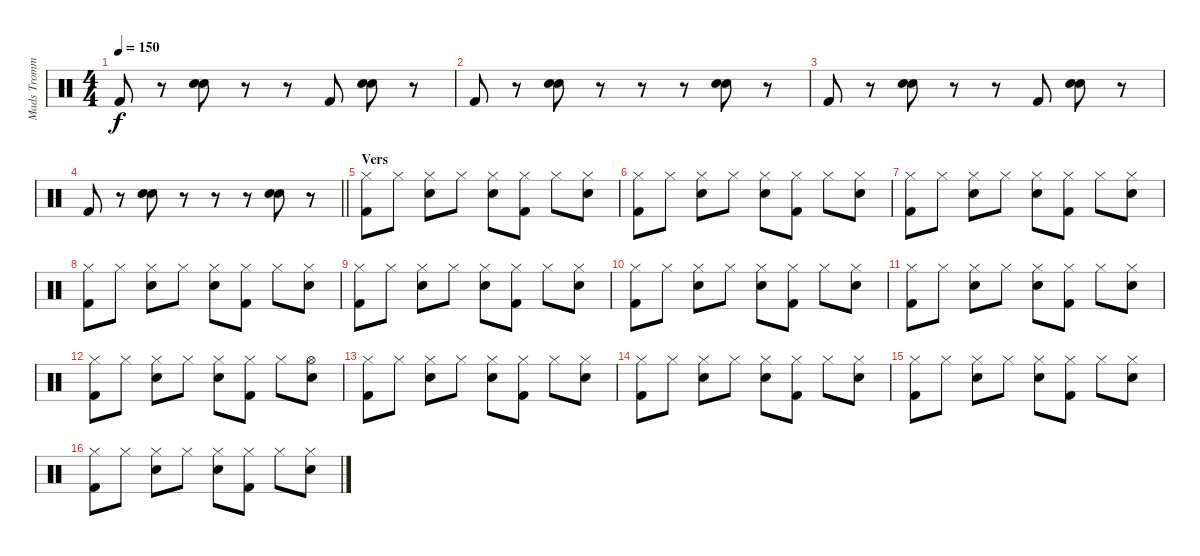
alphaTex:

\track ("Mads Trommer" "Mads Tromm") {instrument percussion}
\staff {score}
\articulation defaults
\ts (4 4)
\tempo 150
\clef neutral
\ks c "Kick (hit) 2".8{dy f}
r.8 ("Hand Clap (hit)" "Electric Snare (hit)").8 r.8 r.8 "Kick (hit) 2".8 ("Hand Clap (hit)" "Electric Snare (hit)").8 r.8 |
"Kick (hit) 2".8 r.8 ("Hand Clap (hit)" "Electric Snare (hit)").8 r.8 r.8 r.8 ("Hand Clap (hit)" "Electric Snare (hit)").8 r.8 |
"Kick (hit) 2".8 r.8 ("Hand Clap (hit)" "Electric Snare (hit)").8 r.8 r.8 "Kick (hit) 2".8 ("Hand Clap (hit)" "Electric Snare (hit)").8 r.8 |
\barLineRight lightlight "Kick (hit) 2".8
r.8 ("Hand Clap (hit)" "Electric Snare (hit)").8 r.8 r.8 r.8 ("Hand Clap (hit)" "Electric Snare (hit)").8 r.8 |
\section ("" "Vers")
("Hi-Hat (closed)" "Kick (hit) 2").8 "Hi-Hat (closed)".8 ("Hi-Hat (closed)" "Electric Snare (hit)").8 "Hi-Hat (closed)".8 ("Hi-Hat (closed)" "Electric Snare (hit)").8 ("Hi-Hat (closed)" "Kick (hit) 2").8 "Hi-Hat (closed)".8 ("Hi-Hat (closed)" "Electric Snare (hit)").8 |
("Hi-Hat (closed)" "Kick (hit) 2").8 "Hi-Hat (closed)".8 ("Hi-Hat (closed)" "Electric Snare (hit)").8 "Hi-Hat (closed)".8 ("Hi-Hat (closed)" "Electric Snare (hit)").8 ("Hi-Hat (closed)" "Kick (hit) 2").8 "Hi-Hat (closed)".8 ("Hi-Hat (closed)" "Electric Snare (hit)").8 |
("Hi-Hat (closed)" "Kick (hit) 2").8 "Hi-Hat (closed)".8 ("Hi-Hat (closed)" "Electric Snare (hit)").8 "Hi-Hat (closed)".8 ("Hi-Hat (closed)" "Electric Snare (hit)").8 ("Hi-Hat (closed)" "Kick (hit) 2").8 "Hi-Hat (closed)".8 ("Hi-Hat (closed)" "Electric Snare (hit)").8 |
("Hi-Hat (closed)" "Kick (hit) 2").8 "Hi-Hat (closed)".8 ("Hi-Hat (closed)" "Electric Snare (hit)").8 "Hi-Hat (closed)".8 ("Hi-Hat (closed)" "Electric Snare (hit)").8 ("Hi-Hat (closed)" "Kick (hit) 2").8 "Hi-Hat (closed)".8 ("Hi-Hat (closed)" "Electric Snare (hit)").8 |
("Hi-Hat (closed)" "Kick (hit) 2").8 "Hi-Hat (closed)".8 ("Hi-Hat (closed)" "Electric Snare (hit)").8 "Hi-Hat (closed)".8 ("Hi-Hat (closed)" "Electric Snare (hit)").8 ("Hi-Hat (closed)" "Kick (hit) 2").8 "Hi-Hat (closed)".8 ("Hi-Hat (closed)" "Electric Snare (hit)").8 |
("Hi-Hat (closed)" "Kick (hit) 2").8 "Hi-Hat (closed)".8 ("Hi-Hat (closed)" "Electric Snare (hit)").8 "Hi-Hat (closed)".8 ("Hi-Hat (closed)" "Electric Snare (hit)").8 ("Hi-Hat (closed)" "Kick (hit) 2").8 "Hi-Hat (closed)".8 ("Hi-Hat (closed)" "Electric Snare (hit)").8 |
("Hi-Hat (closed)" "Kick (hit) 2").8 "Hi-Hat (closed)".8 ("Hi-Hat (closed)" "Electric Snare (hit)").8 "Hi-Hat (closed)".8 ("Hi-Hat (closed)" "Electric Snare (hit)").8 ("Hi-Hat (closed)" "Kick (hit) 2").8 "Hi-Hat (closed)".8 ("Hi-Hat (closed)" "Electric Snare (hit)").8 |
("Hi-Hat (closed)" "Kick (hit) 2").8 "Hi-Hat (closed)".8 ("Hi-Hat (closed)" "Electric Snare (hit)").8 "Hi-Hat (closed)".8 ("Hi-Hat (closed)" "Electric Snare (hit)").8 ("Hi-Hat (closed)" "Kick (hit) 2").8 "Hi-Hat (closed)".8 ("Hi-Hat (open)" "Electric Snare (hit)").8 |
("Hi-Hat (closed)" "Kick (hit) 2").8 "Hi-Hat (closed)".8 ("Hi-Hat (closed)" "Electric Snare (hit)").8 "Hi-Hat (closed)".8 ("Hi-Hat (closed)" "Electric Snare (hit)").8 ("Hi-Hat (closed)" "Kick (hit) 2").8 "Hi-Hat (closed)".8 ("Hi-Hat (closed)" "Electric Snare (hit)").8 |
("Hi-Hat (closed)" "Kick (hit) 2").8 "Hi-Hat (closed)".8 ("Hi-Hat (closed)" "Electric Snare (hit)").8 "Hi-Hat (closed)".8 ("Hi-Hat (closed)" "Electric Snare (hit)").8 ("Hi-Hat (closed)" "Kick (hit) 2").8 "Hi-Hat (closed)".8 ("Hi-Hat (closed)" "Electric Snare (hit)").8 |
("Hi-Hat (closed)" "Kick (hit) 2").8 "Hi-Hat (closed)".8 ("Hi-Hat (closed)" "Electric Snare (hit)").8 "Hi-Hat (closed)".8 ("Hi-Hat (closed)" "Electric Snare (hit)").8 ("Hi-Hat (closed)" "Kick (hit) 2").8 "Hi-Hat (closed)".8 ("Hi-Hat (closed)" "Electric Snare (hit)").8 |
("Hi-Hat (closed)" "Kick (hit) 2").8 "Hi-Hat (closed)".8 ("Hi-Hat (closed)" "Electric Snare (hit)").8 "Hi-Hat (closed)".8 ("Hi-Hat (closed)" "Electric Snare (hit)").8 ("Hi-Hat (closed)" "Kick (hit) 2").8 "Hi-Hat (closed)".8 ("Hi-Hat (closed)" "Electric Snare (hit)").8
